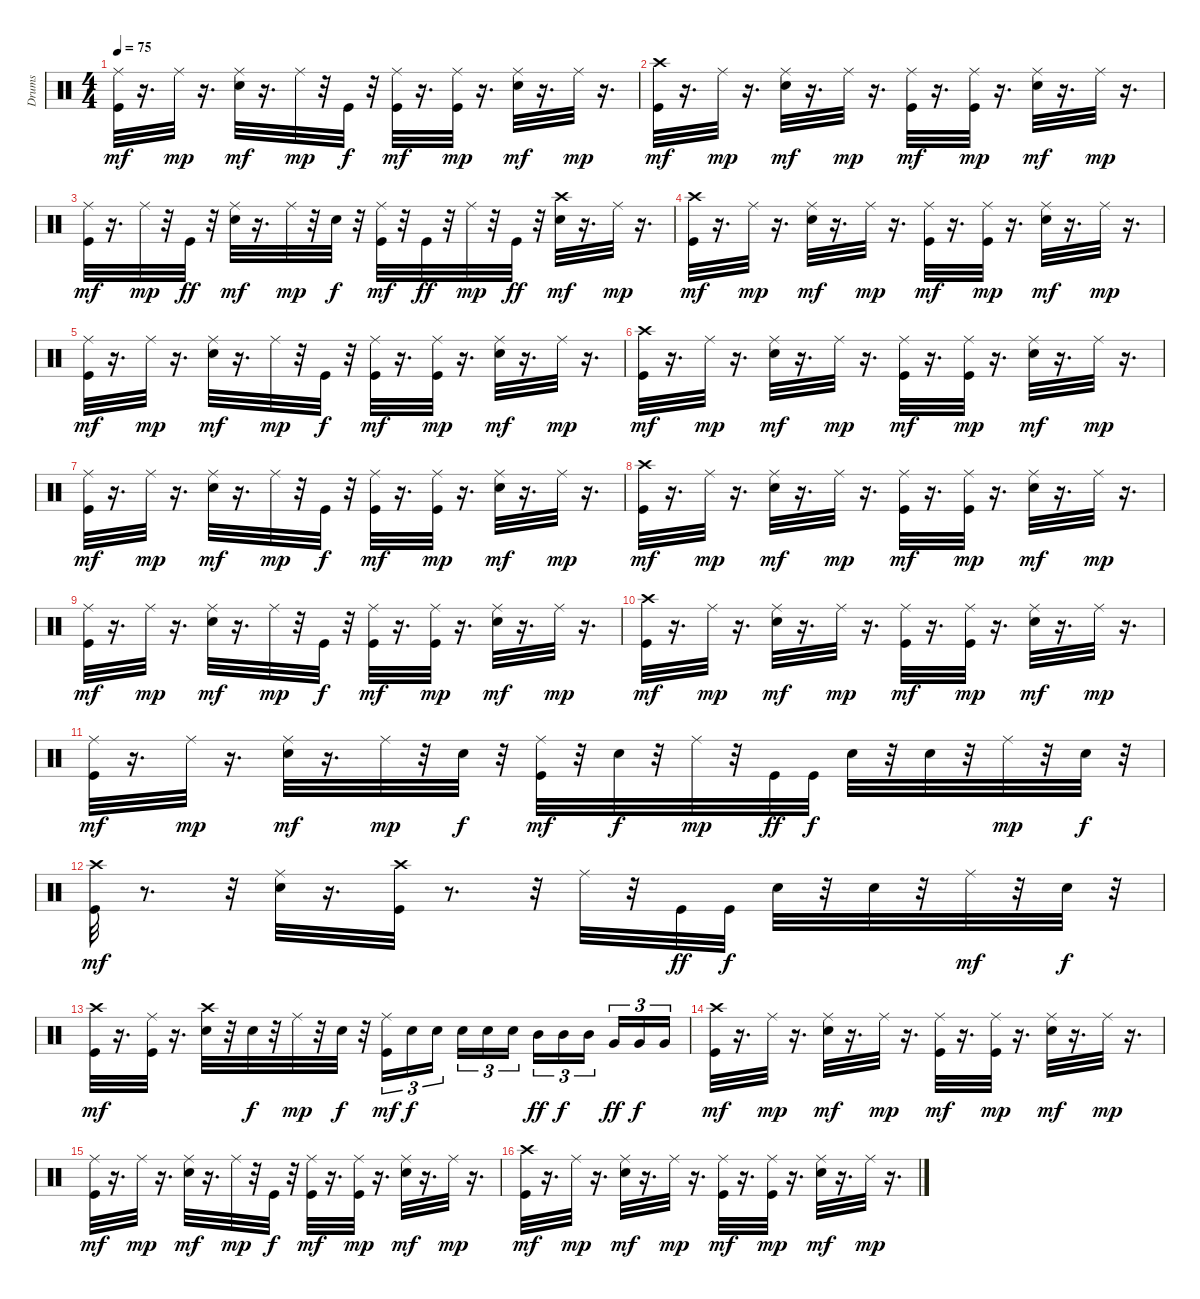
\track ("Drums" "Drums") {instrument percussion}
\staff {score}
\articulation defaults
\ts (4 4)
\tempo 75
\clef neutral
\ks c
("Kick (hit)" "Ride (middle)").32{dy mf} r.16{d} "Ride (middle)".32{dy mp} r.16{d} ("Snare (hit) 2" "Ride (middle)").32{dy mf} r.16{d} "Ride (middle)".32{dy mp} r.32 "Kick (hit)".32{dy f} r.32 ("Kick (hit)" "Ride (middle)").32{dy mf} r.16{d} ("Kick (hit)" "Ride (middle)").32{dy mp} r.16{d} ("Snare (hit) 2" "Ride (middle)").32{dy mf} r.16{d} "Ride (middle)".32{dy mp} r.16{d} |
("Kick (hit)" "Crash high (hit)").32{dy mf} r.16{d} "Ride (middle)".32{dy mp} r.16{d} ("Snare (hit) 2" "Ride (middle)").32{dy mf} r.16{d} "Ride (middle)".32{dy mp} r.16{d} ("Kick (hit)" "Ride (middle)").32{dy mf} r.16{d} ("Kick (hit)" "Ride (middle)").32{dy mp} r.16{d} ("Snare (hit) 2" "Ride (middle)").32{dy mf} r.16{d} "Ride (middle)".32{dy mp} r.16{d} |
("Kick (hit)" "Ride (middle)").32{dy mf} r.16{d} "Ride (middle)".32{dy mp} r.32 "Kick (hit)".32{dy ff} r.32 ("Snare (hit) 2" "Ride (middle)").32{dy mf} r.16{d} "Ride (middle)".32{dy mp} r.32 "Snare (hit) 2".32{dy f} r.32 ("Kick (hit)" "Ride (middle)").32{dy mf} r.32 "Kick (hit)".32{dy ff} r.32 "Ride (middle)".32{dy mp} r.32 "Kick (hit)".32{dy ff} r.32 ("Snare (hit) 2" "Crash high (hit)").32{dy mf} r.16{d} "Ride (middle)".32{dy mp} r.16{d} |
("Kick (hit)" "Crash high (hit)").32{dy mf} r.16{d} "Ride (middle)".32{dy mp} r.16{d} ("Snare (hit) 2" "Ride (middle)").32{dy mf} r.16{d} "Ride (middle)".32{dy mp} r.16{d} ("Kick (hit)" "Ride (middle)").32{dy mf} r.16{d} ("Kick (hit)" "Ride (middle)").32{dy mp} r.16{d} ("Snare (hit) 2" "Ride (middle)").32{dy mf} r.16{d} "Ride (middle)".32{dy mp} r.16{d} |
("Kick (hit)" "Ride (middle)").32{dy mf} r.16{d} "Ride (middle)".32{dy mp} r.16{d} ("Snare (hit) 2" "Ride (middle)").32{dy mf} r.16{d} "Ride (middle)".32{dy mp} r.32 "Kick (hit)".32{dy f} r.32 ("Kick (hit)" "Ride (middle)").32{dy mf} r.16{d} ("Kick (hit)" "Ride (middle)").32{dy mp} r.16{d} ("Snare (hit) 2" "Ride (middle)").32{dy mf} r.16{d} "Ride (middle)".32{dy mp} r.16{d} |
("Kick (hit)" "Crash high (hit)").32{dy mf} r.16{d} "Ride (middle)".32{dy mp} r.16{d} ("Snare (hit) 2" "Ride (middle)").32{dy mf} r.16{d} "Ride (middle)".32{dy mp} r.16{d} ("Kick (hit)" "Ride (middle)").32{dy mf} r.16{d} ("Kick (hit)" "Ride (middle)").32{dy mp} r.16{d} ("Snare (hit) 2" "Ride (middle)").32{dy mf} r.16{d} "Ride (middle)".32{dy mp} r.16{d} |
("Kick (hit)" "Ride (middle)").32{dy mf} r.16{d} "Ride (middle)".32{dy mp} r.16{d} ("Snare (hit) 2" "Ride (middle)").32{dy mf} r.16{d} "Ride (middle)".32{dy mp} r.32 "Kick (hit)".32{dy f} r.32 ("Kick (hit)" "Ride (middle)").32{dy mf} r.16{d} ("Kick (hit)" "Ride (middle)").32{dy mp} r.16{d} ("Snare (hit) 2" "Ride (middle)").32{dy mf} r.16{d} "Ride (middle)".32{dy mp} r.16{d} |
("Kick (hit)" "Crash high (hit)").32{dy mf} r.16{d} "Ride (middle)".32{dy mp} r.16{d} ("Snare (hit) 2" "Ride (middle)").32{dy mf} r.16{d} "Ride (middle)".32{dy mp} r.16{d} ("Kick (hit)" "Ride (middle)").32{dy mf} r.16{d} ("Kick (hit)" "Ride (middle)").32{dy mp} r.16{d} ("Snare (hit) 2" "Ride (middle)").32{dy mf} r.16{d} "Ride (middle)".32{dy mp} r.16{d} |
("Kick (hit)" "Ride (middle)").32{dy mf} r.16{d} "Ride (middle)".32{dy mp} r.16{d} ("Snare (hit) 2" "Ride (middle)").32{dy mf} r.16{d} "Ride (middle)".32{dy mp} r.32 "Kick (hit)".32{dy f} r.32 ("Kick (hit)" "Ride (middle)").32{dy mf} r.16{d} ("Kick (hit)" "Ride (middle)").32{dy mp} r.16{d} ("Snare (hit) 2" "Ride (middle)").32{dy mf} r.16{d} "Ride (middle)".32{dy mp} r.16{d} |
("Kick (hit)" "Crash high (hit)").32{dy mf} r.16{d} "Ride (middle)".32{dy mp} r.16{d} ("Snare (hit) 2" "Ride (middle)").32{dy mf} r.16{d} "Ride (middle)".32{dy mp} r.16{d} ("Kick (hit)" "Ride (middle)").32{dy mf} r.16{d} ("Kick (hit)" "Ride (middle)").32{dy mp} r.16{d} ("Snare (hit) 2" "Ride (middle)").32{dy mf} r.16{d} "Ride (middle)".32{dy mp} r.16{d} |
("Kick (hit)" "Ride (middle)").32{dy mf} r.16{d} "Ride (middle)".32{dy mp} r.16{d} ("Snare (hit) 2" "Ride (middle)").32{dy mf} r.16{d} "Ride (middle)".32{dy mp} r.32 "Snare (hit) 2".32{dy f} r.32 ("Kick (hit)" "Ride (middle)").32{dy mf} r.32 "Snare (hit) 2".32{dy f} r.32 "Ride (middle)".32{dy mp} r.32 "Kick (hit)".32{dy ff} "Kick (hit)".32{dy f} "Snare (hit) 2".32 r.32 "Snare (hit) 2".32 r.32 "Ride (middle)".32{dy mp} r.32 "Snare (hit) 2".32{dy f} r.32 |
("Kick (hit)" "Crash high (hit)").32{dy mf} r.8{d} r.32 ("Snare (hit) 2" "Ride (middle)").32 r.16{d} ("Kick (hit)" "Crash high (hit)").32 r.8{d} r.32 "Ride (middle)".32 r.32 "Kick (hit)".32{dy ff} "Kick (hit)".32{dy f} "Snare (hit) 2".32 r.32 "Snare (hit) 2".32 r.32 "Ride (middle)".32{dy mf} r.32 "Snare (hit) 2".32{dy f} r.32 |
("Kick (hit)" "Crash high (hit)").32{dy mf} r.16{d} ("Kick (hit)" "Ride (middle)").32 r.16{d} ("Snare (hit) 2" "Crash high (hit)").32 r.32 "Snare (hit) 2".32{dy f} r.32 "Ride (middle)".32{dy mp} r.32 "Snare (hit) 2".32{dy f} r.32 ("Kick (hit)" "Ride (middle)").16{tu (3 2) dy mf} "Snare (hit) 2".16{tu (3 2) dy f} "Snare (hit) 2".16{tu (3 2)} "Snare (hit) 2".16{tu (3 2)} "Snare (hit) 2".16{tu (3 2)} "Snare (hit) 2".16{tu (3 2)} "Mid Tom (hit)".16{tu (3 2) dy ff} "Mid Tom (hit)".16{tu (3 2) dy f} "Mid Tom (hit)".16{tu (3 2)} "Very Low Tom (hit)".16{tu (3 2) dy ff} "Very Low Tom (hit)".16{tu (3 2) dy f} "Very Low Tom (hit)".16{tu (3 2)} |
("Kick (hit)" "Crash high (hit)").32{dy mf} r.16{d} "Ride (middle)".32{dy mp} r.16{d} ("Snare (hit) 2" "Ride (middle)").32{dy mf} r.16{d} "Ride (middle)".32{dy mp} r.16{d} ("Kick (hit)" "Ride (middle)").32{dy mf} r.16{d} ("Kick (hit)" "Ride (middle)").32{dy mp} r.16{d} ("Snare (hit) 2" "Ride (middle)").32{dy mf} r.16{d} "Ride (middle)".32{dy mp} r.16{d} |
("Kick (hit)" "Ride (middle)").32{dy mf} r.16{d} "Ride (middle)".32{dy mp} r.16{d} ("Snare (hit) 2" "Ride (middle)").32{dy mf} r.16{d} "Ride (middle)".32{dy mp} r.32 "Kick (hit)".32{dy f} r.32 ("Kick (hit)" "Ride (middle)").32{dy mf} r.16{d} ("Kick (hit)" "Ride (middle)").32{dy mp} r.16{d} ("Snare (hit) 2" "Ride (middle)").32{dy mf} r.16{d} "Ride (middle)".32{dy mp} r.16{d} |
("Kick (hit)" "Crash high (hit)").32{dy mf} r.16{d} "Ride (middle)".32{dy mp} r.16{d} ("Snare (hit) 2" "Ride (middle)").32{dy mf} r.16{d} "Ride (middle)".32{dy mp} r.16{d} ("Kick (hit)" "Ride (middle)").32{dy mf} r.16{d} ("Kick (hit)" "Ride (middle)").32{dy mp} r.16{d} ("Snare (hit) 2" "Ride (middle)").32{dy mf} r.16{d} "Ride (middle)".32{dy mp} r.16{d}
